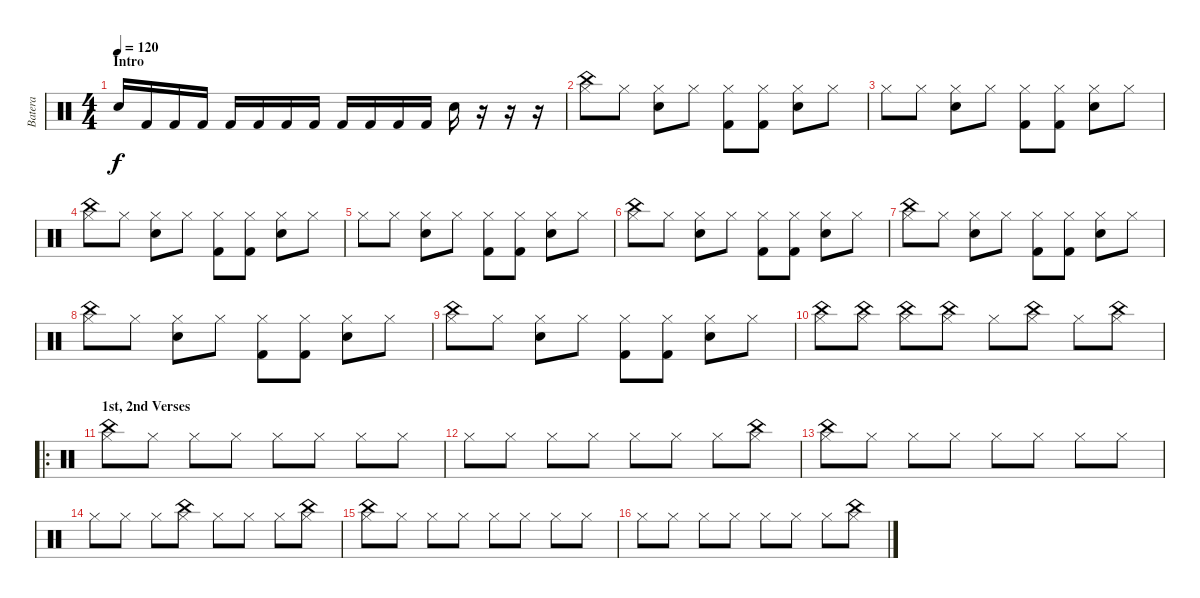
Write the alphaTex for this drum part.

\track ("Batera" "Batera") {instrument percussion}
\staff {score}
\articulation defaults
\ts (4 4)
\section ("" "Intro")
\tempo 120
\clef neutral
\ks c "Snare (hit) 2".16{dy f} "Kick (hit) 2".16 "Kick (hit) 2".16 "Kick (hit) 2".16 "Kick (hit) 2".16 "Kick (hit) 2".16 "Kick (hit) 2".16 "Kick (hit) 2".16 "Kick (hit) 2".16 "Kick (hit) 2".16 "Kick (hit) 2".16 "Kick (hit) 2".16 "Snare (hit) 2".16
r.16 r.16 r.16 |
("Hi-Hat (closed)" "China (hit)").8 "Hi-Hat (closed)".8 ("Hi-Hat (closed)" "Snare (hit) 2").8 "Hi-Hat (closed)".8 ("Hi-Hat (closed)" "Kick (hit) 2").8 ("Hi-Hat (closed)" "Kick (hit) 2").8 ("Hi-Hat (closed)" "Snare (hit) 2").8 "Hi-Hat (closed)".8 |
"Hi-Hat (closed)".8 "Hi-Hat (closed)".8 ("Hi-Hat (closed)" "Snare (hit) 2").8 "Hi-Hat (closed)".8 ("Hi-Hat (closed)" "Kick (hit) 2").8 ("Hi-Hat (closed)" "Kick (hit) 2").8 ("Hi-Hat (closed)" "Snare (hit) 2").8 "Hi-Hat (closed)".8 |
("Hi-Hat (closed)" "China (hit)").8 "Hi-Hat (closed)".8 ("Hi-Hat (closed)" "Snare (hit) 2").8 "Hi-Hat (closed)".8 ("Hi-Hat (closed)" "Kick (hit) 2").8 ("Hi-Hat (closed)" "Kick (hit) 2").8 ("Hi-Hat (closed)" "Snare (hit) 2").8 "Hi-Hat (closed)".8 |
"Hi-Hat (closed)".8 "Hi-Hat (closed)".8 ("Hi-Hat (closed)" "Snare (hit) 2").8 "Hi-Hat (closed)".8 ("Hi-Hat (closed)" "Kick (hit) 2").8 ("Hi-Hat (closed)" "Kick (hit) 2").8 ("Hi-Hat (closed)" "Snare (hit) 2").8 "Hi-Hat (closed)".8 |
("Hi-Hat (closed)" "China (hit)").8 "Hi-Hat (closed)".8 ("Hi-Hat (closed)" "Snare (hit) 2").8 "Hi-Hat (closed)".8 ("Hi-Hat (closed)" "Kick (hit) 2").8 ("Hi-Hat (closed)" "Kick (hit) 2").8 ("Hi-Hat (closed)" "Snare (hit) 2").8 "Hi-Hat (closed)".8 |
("Hi-Hat (closed)" "China (hit)").8 "Hi-Hat (closed)".8 ("Hi-Hat (closed)" "Snare (hit) 2").8 "Hi-Hat (closed)".8 ("Hi-Hat (closed)" "Kick (hit) 2").8 ("Hi-Hat (closed)" "Kick (hit) 2").8 ("Hi-Hat (closed)" "Snare (hit) 2").8 "Hi-Hat (closed)".8 |
("Hi-Hat (closed)" "China (hit)").8 "Hi-Hat (closed)".8 ("Hi-Hat (closed)" "Snare (hit) 2").8 "Hi-Hat (closed)".8 ("Hi-Hat (closed)" "Kick (hit) 2").8 ("Hi-Hat (closed)" "Kick (hit) 2").8 ("Hi-Hat (closed)" "Snare (hit) 2").8 "Hi-Hat (closed)".8 |
("Hi-Hat (closed)" "China (hit)").8 "Hi-Hat (closed)".8 ("Hi-Hat (closed)" "Snare (hit) 2").8 "Hi-Hat (closed)".8 ("Hi-Hat (closed)" "Kick (hit) 2").8 ("Hi-Hat (closed)" "Kick (hit) 2").8 ("Hi-Hat (closed)" "Snare (hit) 2").8 "Hi-Hat (closed)".8 |
("Hi-Hat (closed)" "China (hit)").8 ("Hi-Hat (closed)" "China (hit)").8 ("Hi-Hat (closed)" "China (hit)").8 ("Hi-Hat (closed)" "China (hit)").8 "Hi-Hat (closed)".8 ("Hi-Hat (closed)" "China (hit)").8 "Hi-Hat (closed)".8 ("Hi-Hat (closed)" "China (hit)").8 |
\ro
\section ("" "1st, 2nd Verses")
("Hi-Hat (closed)" "China (hit)").8 "Hi-Hat (closed)".8 "Hi-Hat (closed)".8 "Hi-Hat (closed)".8 "Hi-Hat (closed)".8 "Hi-Hat (closed)".8 "Hi-Hat (closed)".8 "Hi-Hat (closed)".8 |
"Hi-Hat (closed)".8 "Hi-Hat (closed)".8 "Hi-Hat (closed)".8 "Hi-Hat (closed)".8 "Hi-Hat (closed)".8 "Hi-Hat (closed)".8 "Hi-Hat (closed)".8 ("Hi-Hat (closed)" "China (hit)").8 |
("Hi-Hat (closed)" "China (hit)").8 "Hi-Hat (closed)".8 "Hi-Hat (closed)".8 "Hi-Hat (closed)".8 "Hi-Hat (closed)".8 "Hi-Hat (closed)".8 "Hi-Hat (closed)".8 "Hi-Hat (closed)".8 |
"Hi-Hat (closed)".8 "Hi-Hat (closed)".8 "Hi-Hat (closed)".8 ("Hi-Hat (closed)" "China (hit)").8 "Hi-Hat (closed)".8 "Hi-Hat (closed)".8 "Hi-Hat (closed)".8 ("Hi-Hat (closed)" "China (hit)").8 |
("Hi-Hat (closed)" "China (hit)").8 "Hi-Hat (closed)".8 "Hi-Hat (closed)".8 "Hi-Hat (closed)".8 "Hi-Hat (closed)".8 "Hi-Hat (closed)".8 "Hi-Hat (closed)".8 "Hi-Hat (closed)".8 |
"Hi-Hat (closed)".8 "Hi-Hat (closed)".8 "Hi-Hat (closed)".8 "Hi-Hat (closed)".8 "Hi-Hat (closed)".8 "Hi-Hat (closed)".8 "Hi-Hat (closed)".8 ("Hi-Hat (closed)" "China (hit)").8
